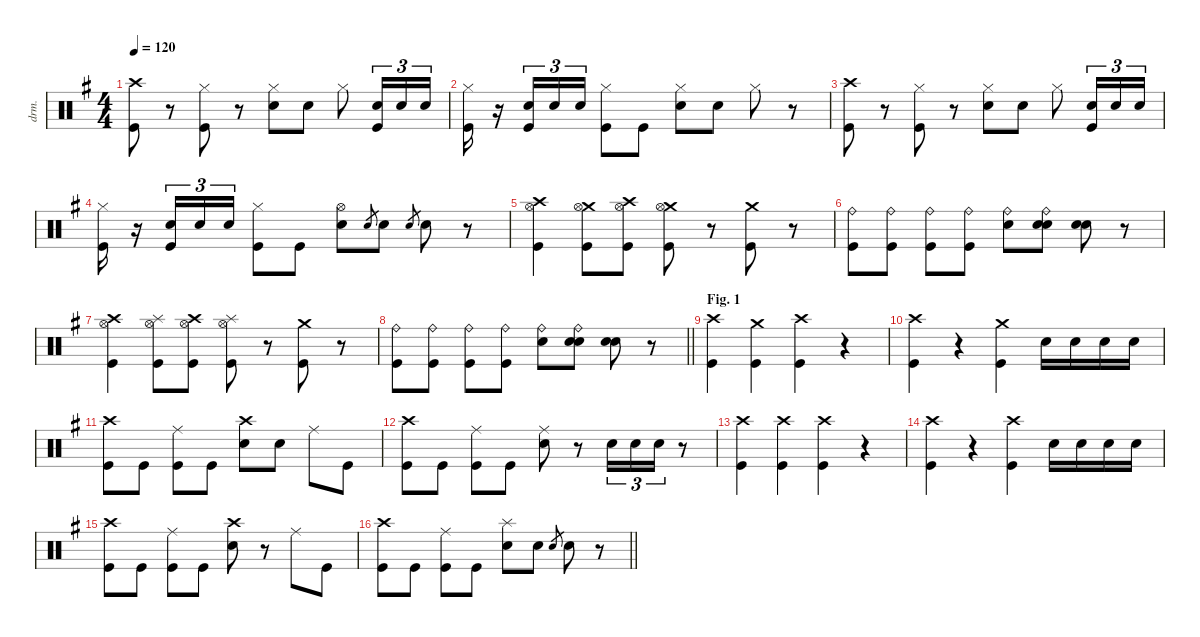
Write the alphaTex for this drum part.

\defaultSystemsLayout 4
\hideDynamics
\bracketExtendMode nobrackets
\track ("Drums (Bill Ward)" "drm.") {instrument percussion}
\staff {score}
\articulation defaults
\ts (4 4)
\tempo 120
\clef neutral
\ks g
("Crash high (hit)"{acc forcenatural} "Kick (hit)"{acc forcenatural}).8{dy f} r.8 ("Hi-Hat (closed)"{acc forcenatural} "Kick (hit)"{acc forcenatural}).8 r.8 ("Hi-Hat (closed)"{acc forcenatural} "Snare (hit) 2"{acc forcenatural}).8 "Snare (hit) 2"{acc forcenatural}.8 "Hi-Hat (closed)"{acc forcenatural}.8 ("Snare (hit) 2"{acc forcenatural} "Kick (hit)"{acc forcenatural}).16{tu (3 2) dy p} "Snare (hit) 2"{acc forcenatural}.16{tu (3 2)} "Snare (hit) 2"{acc forcenatural}.16{tu (3 2)} |
("Hi-Hat (closed)"{acc forcenatural} "Kick (hit)"{acc forcenatural}).16{dy f} r.16 ("Snare (hit) 2"{acc forcenatural} "Kick (hit)"{acc forcenatural}).16{tu (3 2) dy p} "Snare (hit) 2"{acc forcenatural}.16{tu (3 2)} "Snare (hit) 2"{acc forcenatural}.16{tu (3 2)} ("Hi-Hat (closed)"{acc forcenatural} "Kick (hit)"{acc forcenatural}).8{dy f} "Kick (hit)"{acc forcenatural}.8 ("Hi-Hat (closed)"{acc forcenatural} "Snare (hit) 2"{acc forcenatural}).8 "Snare (hit) 2"{acc forcenatural}.8 "Hi-Hat (closed)"{acc forcenatural}.8 r.8 |
("Crash high (hit)"{acc forcenatural} "Kick (hit)"{acc forcenatural}).8 r.8 ("Hi-Hat (closed)"{acc forcenatural} "Kick (hit)"{acc forcenatural}).8 r.8 ("Hi-Hat (closed)"{acc forcenatural} "Snare (hit) 2"{acc forcenatural}).8 "Snare (hit) 2"{acc forcenatural}.8 "Hi-Hat (closed)"{acc forcenatural}.8 ("Snare (hit) 2"{acc forcenatural} "Kick (hit)"{acc forcenatural}).16{tu (3 2) dy p} "Snare (hit) 2"{acc forcenatural}.16{tu (3 2)} "Snare (hit) 2"{acc forcenatural}.16{tu (3 2)} |
("Hi-Hat (closed)"{acc forcenatural} "Kick (hit)"{acc forcenatural}).16{dy f} r.16 ("Snare (hit) 2"{acc forcenatural} "Kick (hit)"{acc forcenatural}).16{tu (3 2) dy p} "Snare (hit) 2"{acc forcenatural}.16{tu (3 2)} "Snare (hit) 2"{acc forcenatural}.16{tu (3 2)} ("Hi-Hat (closed)"{acc forcenatural} "Kick (hit)"{acc forcenatural}).8{dy f} "Kick (hit)"{acc forcenatural}.8 ("Hi-Hat (open)"{acc forcenatural} "Snare (hit) 2"{acc forcenatural}).8{dy fff} "Electric Snare (hit)"{acc forcenatural}.8{gr dy mf} "Snare (hit) 2"{acc forcenatural}.8{dy f} "Electric Snare (hit)"{acc forcenatural}.8{gr dy mf} "Snare (hit) 2"{acc forcenatural}.8{dy f} r.8 |
("Crash high (hit)"{acc forcenatural} "Hi-Hat (open)"{acc forcenatural} "Kick (hit)"{acc forcenatural}).4 ("Crash medium (hit)"{acc forcenatural} "Hi-Hat (open)"{acc forcenatural} "Kick (hit)"{acc forcenatural}).8 ("Crash high (hit)"{acc forcenatural} "Hi-Hat (open)"{acc forcenatural} "Kick (hit)"{acc forcenatural}).8 ("Crash medium (hit)"{acc forcenatural} "Hi-Hat (open)"{acc forcenatural} "Kick (hit)"{acc forcenatural}).8 r.8 ("Crash medium (hit)"{acc forcenatural} "Kick (hit)"{acc forcenatural}).8 r.8 |
("Ride (bell)"{acc forcenatural} "Kick (hit)"{acc forcenatural}).8 ("Ride (bell)"{acc forcenatural} "Kick (hit)"{acc forcenatural}).8 ("Ride (bell)"{acc forcenatural} "Kick (hit)"{acc forcenatural}).8 ("Ride (bell)"{acc forcenatural} "Kick (hit)"{acc forcenatural}).8 ("Ride (bell)"{acc forcenatural} "Snare (hit) 2"{acc forcenatural}).8 ("Ride (bell)"{acc forcenatural} "Snare (hit) 2"{acc forcenatural} "Snare (hit) 2"{acc forcenatural}).8 ("Snare (hit) 2"{acc forcenatural} "Snare (hit) 2"{acc forcenatural}).8{dy ff} r.8 |
("Crash high (hit)"{acc forcenatural} "Hi-Hat (open)"{acc forcenatural} "Kick (hit)"{acc forcenatural}).4{dy f} ("Splash (hit)"{acc forcenatural} "Hi-Hat (open)"{acc forcenatural} "Kick (hit)"{acc forcenatural}).8 ("Crash high (hit)"{acc forcenatural} "Hi-Hat (open)"{acc forcenatural} "Kick (hit)"{acc forcenatural}).8 ("Splash (hit)"{acc forcenatural} "Hi-Hat (open)"{acc forcenatural} "Kick (hit)"{acc forcenatural}).8 r.8 ("Crash medium (hit)"{acc forcenatural} "Kick (hit)"{acc forcenatural}).8 r.8 |
\barLineRight lightlight
("Ride (bell)"{acc forcenatural} "Kick (hit)"{acc forcenatural}).8 ("Ride (bell)"{acc forcenatural} "Kick (hit)"{acc forcenatural}).8 ("Ride (bell)"{acc forcenatural} "Kick (hit)"{acc forcenatural}).8 ("Ride (bell)"{acc forcenatural} "Kick (hit)"{acc forcenatural}).8 ("Ride (bell)"{acc forcenatural} "Snare (hit) 2"{acc forcenatural}).8 ("Ride (bell)"{acc forcenatural} "Snare (hit) 2"{acc forcenatural} "Snare (hit) 2"{acc forcenatural}).8 ("Snare (hit) 2"{acc forcenatural} "Snare (hit) 2"{acc forcenatural}).8{dy ff} r.8 |
\section ("" "Fig. 1")
("Crash high (hit)"{acc forcenatural} "Kick (hit)"{acc forcenatural}).4{dy f} ("Crash medium (hit)"{acc forcenatural} "Kick (hit)"{acc forcenatural}).4 ("Crash high (hit)"{acc forcenatural} "Kick (hit)"{acc forcenatural}).4 r.4 |
("Crash high (hit)"{acc forcenatural} "Kick (hit)"{acc forcenatural}).4 r.4 ("Crash medium (hit)"{acc forcenatural} "Kick (hit)"{acc forcenatural}).4 "Snare (hit) 2"{acc forcenatural}.16 "Snare (hit) 2"{acc forcenatural}.16 "Snare (hit) 2"{acc forcenatural}.16 "Snare (hit) 2"{acc forcenatural}.16 |
("Crash high (hit)"{acc forcenatural} "Kick (hit)"{acc forcenatural}).8 "Kick (hit)"{acc forcenatural}.8 ("Ride (middle)"{acc forcenatural} "Kick (hit)"{acc forcenatural}).8 "Kick (hit)"{acc forcenatural}.8 ("Crash high (hit)"{acc forcenatural} "Snare (hit) 2"{acc forcenatural}).8 "Snare (hit) 2"{acc forcenatural}.8 "Ride (middle)"{acc forcenatural}.8 "Kick (hit)"{acc forcenatural}.8 |
("Crash high (hit)"{acc forcenatural} "Kick (hit)"{acc forcenatural}).8 "Kick (hit)"{acc forcenatural}.8 ("Ride (middle)"{acc forcenatural} "Kick (hit)"{acc forcenatural}).8 "Kick (hit)"{acc forcenatural}.8 ("Ride (middle)"{acc forcenatural} "Snare (hit) 2"{acc forcenatural}).8 r.8 "Snare (hit) 2"{acc forcenatural}.16{tu (3 2)} "Snare (hit) 2"{acc forcenatural}.16{tu (3 2)} "Snare (hit) 2"{acc forcenatural}.16{tu (3 2)} r.8 |
("Crash high (hit)"{acc forcenatural} "Kick (hit)"{acc forcenatural}).4 ("Crash high (hit)"{acc forcenatural} "Kick (hit)"{acc forcenatural}).4 ("Crash high (hit)"{acc forcenatural} "Kick (hit)"{acc forcenatural}).4 r.4 |
("Crash high (hit)"{acc forcenatural} "Kick (hit)"{acc forcenatural}).4 r.4 ("Crash high (hit)"{acc forcenatural} "Kick (hit)"{acc forcenatural}).4 "Snare (hit) 2"{acc forcenatural}.16 "Snare (hit) 2"{acc forcenatural}.16 "Snare (hit) 2"{acc forcenatural}.16 "Snare (hit) 2"{acc forcenatural}.16 |
("Crash high (hit)"{acc forcenatural} "Kick (hit)"{acc forcenatural}).8{dy mf} "Kick (hit)"{acc forcenatural}.8{dy f} ("Ride (middle)"{acc forcenatural} "Kick (hit)"{acc forcenatural}).8{dy mf} "Kick (hit)"{acc forcenatural}.8{dy f} ("Crash high (hit)"{acc forcenatural} "Snare (hit) 2"{acc forcenatural}).8{dy mf} r.8 "Ride (middle)"{acc forcenatural}.8{dy f} "Kick (hit)"{acc forcenatural}.8 |
\barLineRight lightlight
("Crash high (hit)"{acc forcenatural} "Kick (hit)"{acc forcenatural}).8{dy mf} "Kick (hit)"{acc forcenatural}.8{dy f} ("Ride (middle)"{acc forcenatural} "Kick (hit)"{acc forcenatural}).8{dy ff} "Kick (hit)"{acc forcenatural}.8{dy f} ("Splash (hit)"{acc forcenatural} "Snare (hit) 2"{acc forcenatural}).8{dy fff} "Snare (hit) 2"{acc forcenatural}.8{dy f} "Electric Snare (hit)"{acc forcenatural}.8{gr dy mf} "Snare (hit) 2"{acc forcenatural}.8{dy f} r.8
